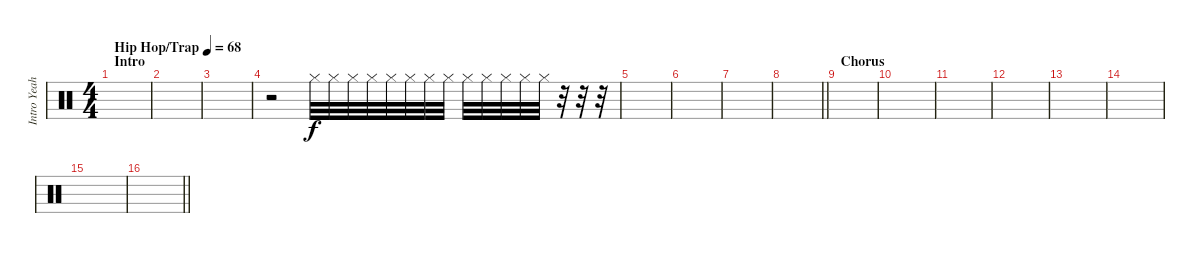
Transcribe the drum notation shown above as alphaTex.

\track ("Intro Yeah" "Intro Yeah") {instrument percussion}
\staff {score}
\articulation defaults
\ts (4 4)
\section ("" "Intro")
\tempo (68 "Hip Hop/Trap")
\clef neutral
\ks c
|
|
|
r.2 "Hi-Hat (closed)".32{volume 12 balance 8} "Hi-Hat (closed)".32 "Hi-Hat (closed)".32 "Hi-Hat (closed)".32 "Hi-Hat (closed)".32 "Hi-Hat (closed)".32 "Hi-Hat (closed)".32 "Hi-Hat (closed)".32 "Hi-Hat (closed)".32 "Hi-Hat (closed)".32 "Hi-Hat (closed)".32 "Hi-Hat (closed)".32 "Hi-Hat (closed)".32 r.32 r.32 r.32 |
|
|
|
\barLineRight lightlight
|
\section ("" "Chorus")
|
|
|
|
|
|
|
\barLineRight lightlight
